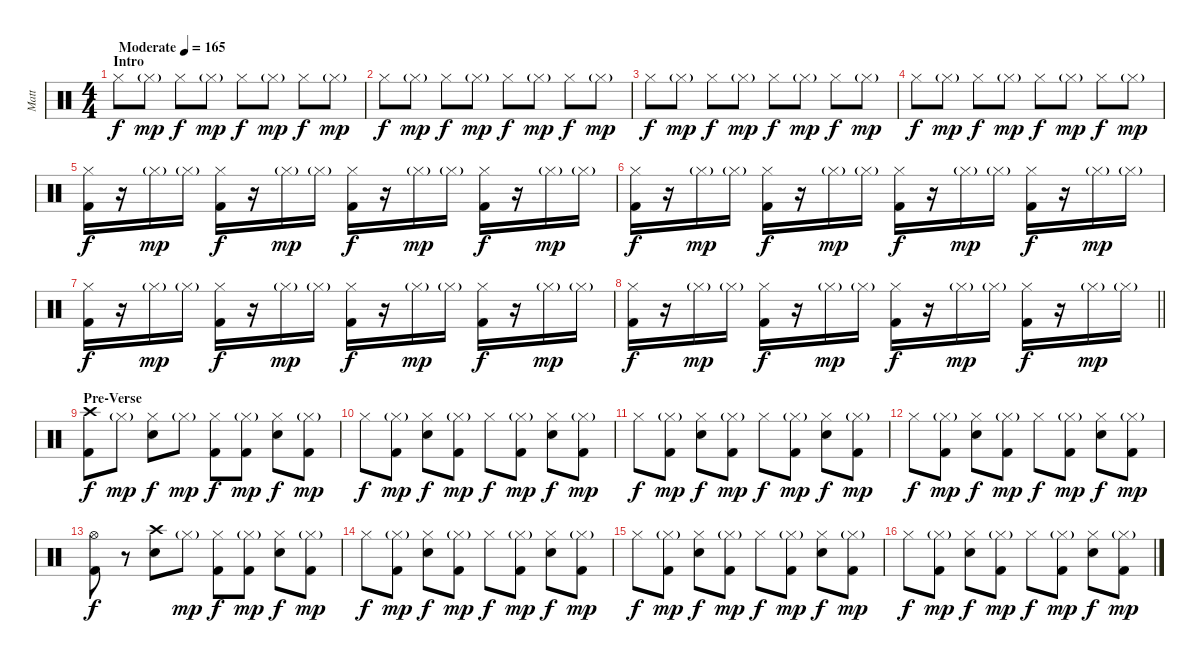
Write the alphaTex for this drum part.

\track ("Matt" "Matt") {instrument percussion}
\staff {score}
\articulation defaults
\ts (4 4)
\section ("" "Intro")
\tempo (165 "Moderate")
\clef neutral
\ks c "Hi-Hat (closed)".8{dy f} "Hi-Hat (closed)"{g}.8{dy mp} "Hi-Hat (closed)".8{dy f} "Hi-Hat (closed)"{g}.8{dy mp} "Hi-Hat (closed)".8{dy f} "Hi-Hat (closed)"{g}.8{dy mp} "Hi-Hat (closed)".8{dy f} "Hi-Hat (closed)"{g}.8{dy mp}
|
"Hi-Hat (closed)".8{dy f} "Hi-Hat (closed)"{g}.8{dy mp} "Hi-Hat (closed)".8{dy f} "Hi-Hat (closed)"{g}.8{dy mp} "Hi-Hat (closed)".8{dy f} "Hi-Hat (closed)"{g}.8{dy mp} "Hi-Hat (closed)".8{dy f} "Hi-Hat (closed)"{g}.8{dy mp} |
"Hi-Hat (closed)".8{dy f} "Hi-Hat (closed)"{g}.8{dy mp} "Hi-Hat (closed)".8{dy f} "Hi-Hat (closed)"{g}.8{dy mp} "Hi-Hat (closed)".8{dy f} "Hi-Hat (closed)"{g}.8{dy mp} "Hi-Hat (closed)".8{dy f} "Hi-Hat (closed)"{g}.8{dy mp} |
"Hi-Hat (closed)".8{dy f} "Hi-Hat (closed)"{g}.8{dy mp} "Hi-Hat (closed)".8{dy f} "Hi-Hat (closed)"{g}.8{dy mp} "Hi-Hat (closed)".8{dy f} "Hi-Hat (closed)"{g}.8{dy mp} "Hi-Hat (closed)".8{dy f} "Hi-Hat (closed)"{g}.8{dy mp} |
("Hi-Hat (closed)" "Kick (hit) 2").16{dy f} r.16 "Hi-Hat (closed)"{g}.16{dy mp} "Hi-Hat (closed)"{g}.16 ("Hi-Hat (closed)" "Kick (hit) 2").16{dy f} r.16 "Hi-Hat (closed)"{g}.16{dy mp} "Hi-Hat (closed)"{g}.16 ("Hi-Hat (closed)" "Kick (hit) 2").16{dy f} r.16 "Hi-Hat (closed)"{g}.16{dy mp} "Hi-Hat (closed)"{g}.16 ("Hi-Hat (closed)" "Kick (hit) 2").16{dy f} r.16 "Hi-Hat (closed)"{g}.16{dy mp} "Hi-Hat (closed)"{g}.16 |
("Hi-Hat (closed)" "Kick (hit) 2").16{dy f} r.16 "Hi-Hat (closed)"{g}.16{dy mp} "Hi-Hat (closed)"{g}.16 ("Hi-Hat (closed)" "Kick (hit) 2").16{dy f} r.16 "Hi-Hat (closed)"{g}.16{dy mp} "Hi-Hat (closed)"{g}.16 ("Hi-Hat (closed)" "Kick (hit) 2").16{dy f} r.16 "Hi-Hat (closed)"{g}.16{dy mp} "Hi-Hat (closed)"{g}.16 ("Hi-Hat (closed)" "Kick (hit) 2").16{dy f} r.16 "Hi-Hat (closed)"{g}.16{dy mp} "Hi-Hat (closed)"{g}.16 |
("Hi-Hat (closed)" "Kick (hit) 2").16{dy f} r.16 "Hi-Hat (closed)"{g}.16{dy mp} "Hi-Hat (closed)"{g}.16 ("Hi-Hat (closed)" "Kick (hit) 2").16{dy f} r.16 "Hi-Hat (closed)"{g}.16{dy mp} "Hi-Hat (closed)"{g}.16 ("Hi-Hat (closed)" "Kick (hit) 2").16{dy f} r.16 "Hi-Hat (closed)"{g}.16{dy mp} "Hi-Hat (closed)"{g}.16 ("Hi-Hat (closed)" "Kick (hit) 2").16{dy f} r.16 "Hi-Hat (closed)"{g}.16{dy mp} "Hi-Hat (closed)"{g}.16 |
\barLineRight lightlight
("Hi-Hat (closed)" "Kick (hit) 2").16{dy f} r.16 "Hi-Hat (closed)"{g}.16{dy mp} "Hi-Hat (closed)"{g}.16 ("Hi-Hat (closed)" "Kick (hit) 2").16{dy f} r.16 "Hi-Hat (closed)"{g}.16{dy mp} "Hi-Hat (closed)"{g}.16 ("Hi-Hat (closed)" "Kick (hit) 2").16{dy f} r.16 "Hi-Hat (closed)"{g}.16{dy mp} "Hi-Hat (closed)"{g}.16 ("Hi-Hat (closed)" "Kick (hit) 2").16{dy f} r.16 "Hi-Hat (closed)"{g}.16{dy mp} "Hi-Hat (closed)"{g}.16 |
\section ("" "Pre-Verse")
("Crash high (hit)" "Kick (hit) 2").8{dy f} "Hi-Hat (closed)"{g}.8{dy mp} ("Hi-Hat (closed)" "Snare (hit) 2").8{dy f} "Hi-Hat (closed)"{g}.8{dy mp} ("Hi-Hat (closed)" "Kick (hit) 2").8{dy f} ("Hi-Hat (closed)"{g} "Kick (hit) 2").8{dy mp} ("Hi-Hat (closed)" "Snare (hit) 2").8{dy f} ("Hi-Hat (closed)"{g} "Kick (hit) 2").8{dy mp} |
"Hi-Hat (closed)".8{dy f} ("Hi-Hat (closed)"{g} "Kick (hit) 2").8{dy mp} ("Hi-Hat (closed)" "Snare (hit) 2").8{dy f} ("Hi-Hat (closed)"{g} "Kick (hit) 2").8{dy mp} "Hi-Hat (closed)".8{dy f} ("Hi-Hat (closed)"{g} "Kick (hit) 2").8{dy mp} ("Hi-Hat (closed)" "Snare (hit) 2").8{dy f} ("Hi-Hat (closed)"{g} "Kick (hit) 2").8{dy mp} |
"Hi-Hat (closed)".8{dy f} ("Hi-Hat (closed)"{g} "Kick (hit) 2").8{dy mp} ("Hi-Hat (closed)" "Snare (hit) 2").8{dy f} ("Hi-Hat (closed)"{g} "Kick (hit) 2").8{dy mp} "Hi-Hat (closed)".8{dy f} ("Hi-Hat (closed)"{g} "Kick (hit) 2").8{dy mp} ("Hi-Hat (closed)" "Snare (hit) 2").8{dy f} ("Hi-Hat (closed)"{g} "Kick (hit) 2").8{dy mp} |
"Hi-Hat (closed)".8{dy f} ("Hi-Hat (closed)"{g} "Kick (hit) 2").8{dy mp} ("Hi-Hat (closed)" "Snare (hit) 2").8{dy f} ("Hi-Hat (closed)"{g} "Kick (hit) 2").8{dy mp} "Hi-Hat (closed)".8{dy f} ("Hi-Hat (closed)"{g} "Kick (hit) 2").8{dy mp} ("Hi-Hat (closed)" "Snare (hit) 2").8{dy f} ("Hi-Hat (closed)"{g} "Kick (hit) 2").8{dy mp} |
("Hi-Hat (open)" "Kick (hit) 2").8{dy f} r.8 ("Crash high (hit)" "Snare (hit) 2").8 "Hi-Hat (closed)"{g}.8{dy mp} ("Hi-Hat (closed)" "Kick (hit) 2").8{dy f} ("Hi-Hat (closed)"{g} "Kick (hit) 2").8{dy mp} ("Hi-Hat (closed)" "Snare (hit) 2").8{dy f} ("Hi-Hat (closed)"{g} "Kick (hit) 2").8{dy mp} |
"Hi-Hat (closed)".8{dy f} ("Hi-Hat (closed)"{g} "Kick (hit) 2").8{dy mp} ("Hi-Hat (closed)" "Snare (hit) 2").8{dy f} ("Hi-Hat (closed)"{g} "Kick (hit) 2").8{dy mp} "Hi-Hat (closed)".8{dy f} ("Hi-Hat (closed)"{g} "Kick (hit) 2").8{dy mp} ("Hi-Hat (closed)" "Snare (hit) 2").8{dy f} ("Hi-Hat (closed)"{g} "Kick (hit) 2").8{dy mp} |
"Hi-Hat (closed)".8{dy f} ("Hi-Hat (closed)"{g} "Kick (hit) 2").8{dy mp} ("Hi-Hat (closed)" "Snare (hit) 2").8{dy f} ("Hi-Hat (closed)"{g} "Kick (hit) 2").8{dy mp} "Hi-Hat (closed)".8{dy f} ("Hi-Hat (closed)"{g} "Kick (hit) 2").8{dy mp} ("Hi-Hat (closed)" "Snare (hit) 2").8{dy f} ("Hi-Hat (closed)"{g} "Kick (hit) 2").8{dy mp} |
"Hi-Hat (closed)".8{dy f} ("Hi-Hat (closed)"{g} "Kick (hit) 2").8{dy mp} ("Hi-Hat (closed)" "Snare (hit) 2").8{dy f} ("Hi-Hat (closed)"{g} "Kick (hit) 2").8{dy mp} "Hi-Hat (closed)".8{dy f} ("Hi-Hat (closed)"{g} "Kick (hit) 2").8{dy mp} ("Hi-Hat (closed)" "Snare (hit) 2").8{dy f} ("Hi-Hat (closed)"{g} "Kick (hit) 2").8{dy mp}
